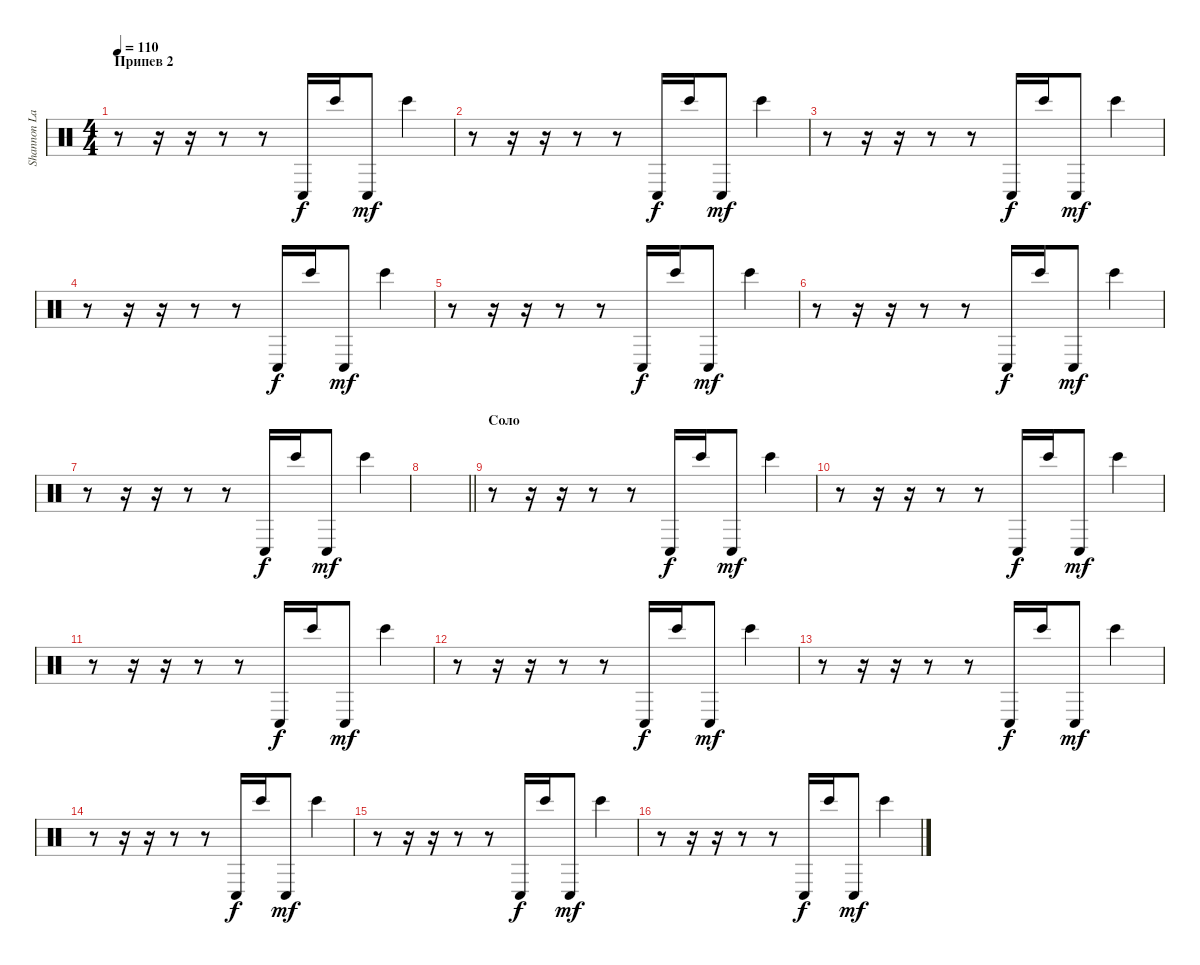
\track ("Shannon Larkin [Percussion 2]" "Shannon La") {instrument percussion}
\staff {score}
\articulation defaults
\ts (4 4)
\section ("" "Припев 2")
\tempo 110
\clef neutral
\ks c
r.8{dy mf} r.16 r.16 r.8 r.8 "Conga low (hit)".16{dy f} "Bongo High (hit)".16 "Conga low (hit)".8{dy mf} "Bongo High (hit)".4 |
r.8 r.16 r.16 r.8 r.8 "Conga low (hit)".16{dy f} "Bongo High (hit)".16 "Conga low (hit)".8{dy mf} "Bongo High (hit)".4 |
r.8 r.16 r.16 r.8 r.8 "Conga low (hit)".16{dy f} "Bongo High (hit)".16 "Conga low (hit)".8{dy mf} "Bongo High (hit)".4 |
r.8 r.16 r.16 r.8 r.8 "Conga low (hit)".16{dy f} "Bongo High (hit)".16 "Conga low (hit)".8{dy mf} "Bongo High (hit)".4 |
r.8 r.16 r.16 r.8 r.8 "Conga low (hit)".16{dy f} "Bongo High (hit)".16 "Conga low (hit)".8{dy mf} "Bongo High (hit)".4 |
r.8 r.16 r.16 r.8 r.8 "Conga low (hit)".16{dy f} "Bongo High (hit)".16 "Conga low (hit)".8{dy mf} "Bongo High (hit)".4 |
r.8 r.16 r.16 r.8 r.8 "Conga low (hit)".16{dy f} "Bongo High (hit)".16 "Conga low (hit)".8{dy mf} "Bongo High (hit)".4 |
\barLineRight lightlight
|
\section ("" "Соло")
r.8 r.16 r.16 r.8 r.8 "Conga low (hit)".16{dy f} "Bongo High (hit)".16 "Conga low (hit)".8{dy mf} "Bongo High (hit)".4 |
r.8 r.16 r.16 r.8 r.8 "Conga low (hit)".16{dy f} "Bongo High (hit)".16 "Conga low (hit)".8{dy mf} "Bongo High (hit)".4 |
r.8 r.16 r.16 r.8 r.8 "Conga low (hit)".16{dy f} "Bongo High (hit)".16 "Conga low (hit)".8{dy mf} "Bongo High (hit)".4 |
r.8 r.16 r.16 r.8 r.8 "Conga low (hit)".16{dy f} "Bongo High (hit)".16 "Conga low (hit)".8{dy mf} "Bongo High (hit)".4 |
r.8 r.16 r.16 r.8 r.8 "Conga low (hit)".16{dy f} "Bongo High (hit)".16 "Conga low (hit)".8{dy mf} "Bongo High (hit)".4 |
r.8 r.16 r.16 r.8 r.8 "Conga low (hit)".16{dy f} "Bongo High (hit)".16 "Conga low (hit)".8{dy mf} "Bongo High (hit)".4 |
r.8 r.16 r.16 r.8 r.8 "Conga low (hit)".16{dy f} "Bongo High (hit)".16 "Conga low (hit)".8{dy mf} "Bongo High (hit)".4 |
r.8 r.16 r.16 r.8 r.8 "Conga low (hit)".16{dy f} "Bongo High (hit)".16 "Conga low (hit)".8{dy mf} "Bongo High (hit)".4
